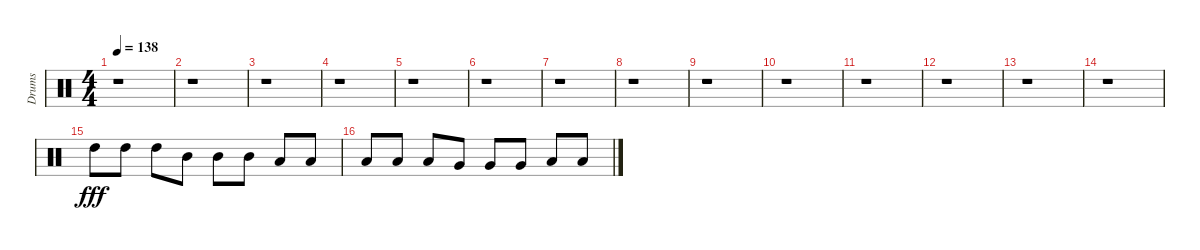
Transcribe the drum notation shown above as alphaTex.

\track ("Drums" "Drums") {instrument percussion}
\staff {score}
\articulation defaults
\ts (4 4)
\tempo 138
\tempo 123
\tempo 138
\clef neutral
\ks c
r.1{dy fff} |
r.1 |
r.1 |
r.1 |
r.1 |
r.1 |
r.1 |
r.1 |
r.1 |
r.1 |
r.1 |
r.1 |
r.1 |
r.1 |
"High Tom (hit)".8 "High Tom (hit)".8 "High Tom (hit)".8 "Mid Tom (hit)".8 "Mid Tom (hit)".8 "Mid Tom (hit)".8 "Low Tom (hit)".8 "Low Tom (hit)".8 |
"Low Tom (hit)".8 "Low Tom (hit)".8 "Low Tom (hit)".8 "Very Low Tom (hit)".8 "Very Low Tom (hit)".8 "Very Low Tom (hit)".8 "Low Floor Tom (hit)".8 "Low Floor Tom (hit)".8
